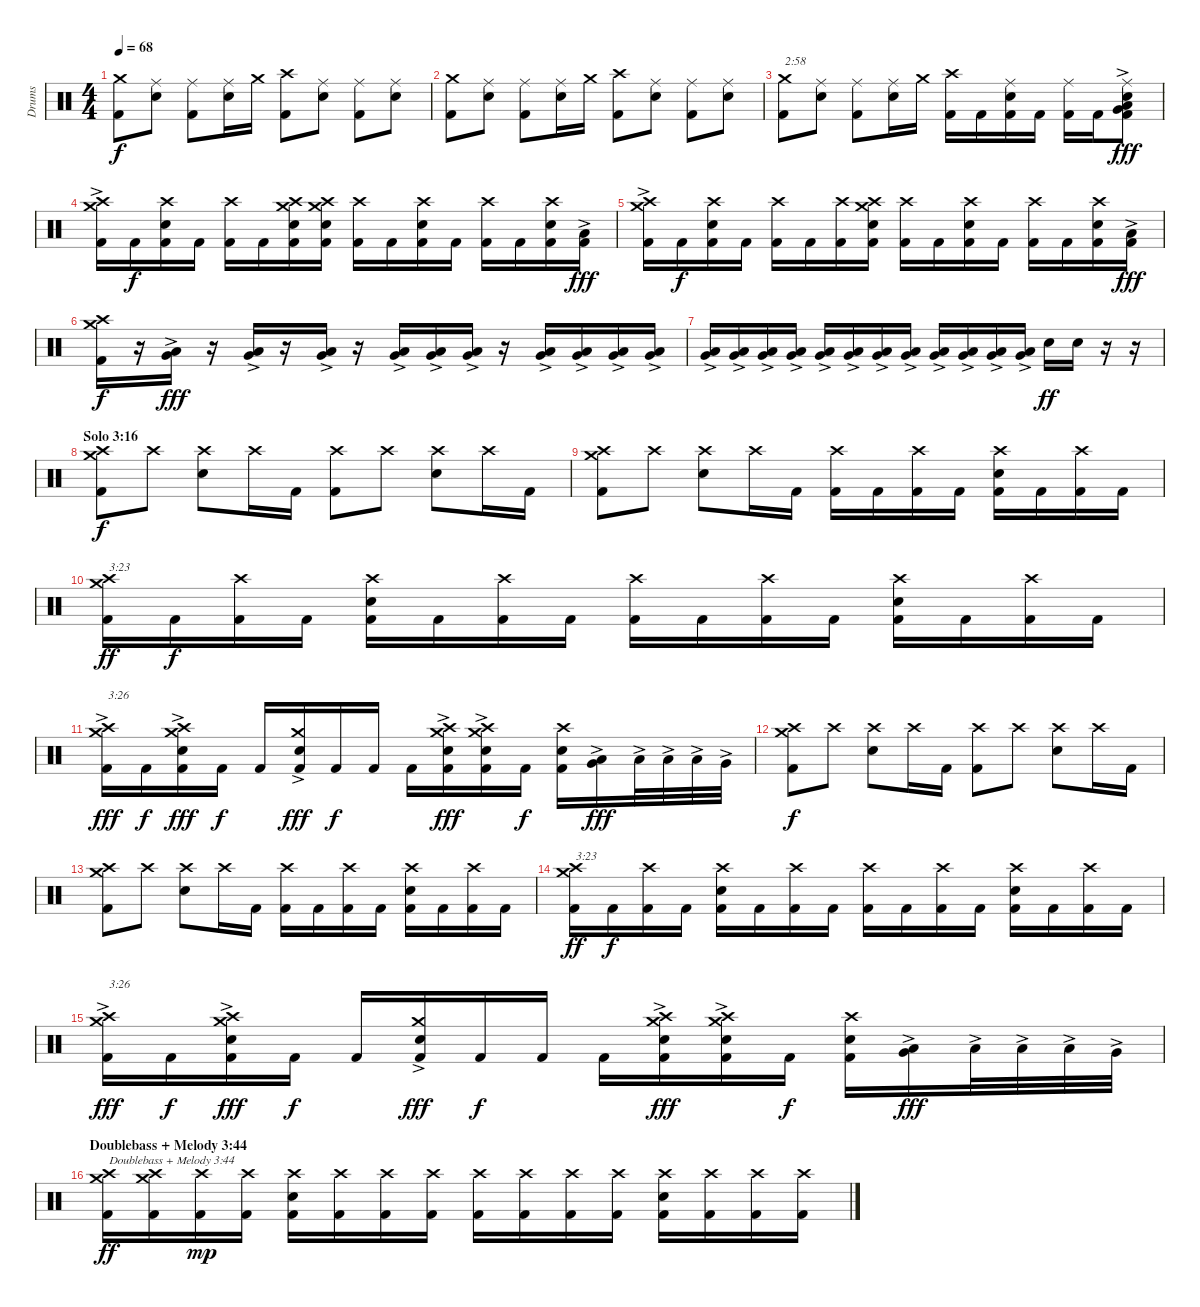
\track ("Drums" "Drums") {instrument percussion}
\staff {score}
\articulation defaults
\ts (4 4)
\tempo 68
\clef neutral
\ks c
("Kick (hit) 2" "Crash medium (hit)").8{dy f} ("Electric Snare (hit)" "Ride (middle)").8 ("Kick (hit) 2" "Ride (middle)").8 ("Electric Snare (hit)" "Ride (middle)").16 "Crash medium (hit)".16 ("Kick (hit) 2" "Crash high (hit)").8 ("Electric Snare (hit)" "Ride (middle)").8 ("Kick (hit) 2" "Ride (middle)").8 ("Electric Snare (hit)" "Ride (middle)").8 |
("Kick (hit) 2" "Crash medium (hit)").8 ("Electric Snare (hit)" "Ride (middle)").8 ("Kick (hit) 2" "Ride (middle)").8 ("Electric Snare (hit)" "Ride (middle)").16 "Crash medium (hit)".16 ("Kick (hit) 2" "Crash high (hit)").8 ("Electric Snare (hit)" "Ride (middle)").8 ("Kick (hit) 2" "Ride (middle)").8 ("Electric Snare (hit)" "Ride (middle)").8 |
("Kick (hit) 2" "Crash medium (hit)").8{txt "2:58"} ("Electric Snare (hit)" "Ride (middle)").8 ("Kick (hit) 2" "Ride (middle)").8 ("Electric Snare (hit)" "Ride (middle)").16 "Crash medium (hit)".16 ("Kick (hit) 2" "Crash high (hit)").16 "Kick (hit) 2".16 ("Kick (hit) 2" "Electric Snare (hit)" "Ride (middle)").16 "Kick (hit) 2".16 ("Kick (hit) 2" "Ride (middle)").16 "Kick (hit) 2".16 ("Kick (hit) 2"{ac} "Very Low Tom (hit)"{ac} "Low Tom (hit)"{ac} "Electric Snare (hit)" "Ride (middle)").8{dy fff} |
("Kick (hit) 2" "Crash high (hit)" "Crash medium (hit)"{ac}).16 "Kick (hit) 2".16{dy f} ("Kick (hit) 2" "Electric Snare (hit)" "Crash high (hit)").16 "Kick (hit) 2".16 ("Kick (hit) 2" "Crash high (hit)").16 "Kick (hit) 2".16 ("Kick (hit) 2" "Electric Snare (hit)" "Crash high (hit)" "Crash medium (hit)").16 ("Kick (hit) 2" "Electric Snare (hit)" "Crash high (hit)" "Crash medium (hit)").16 ("Kick (hit) 2" "Crash high (hit)").16 "Kick (hit) 2".16 ("Kick (hit) 2" "Electric Snare (hit)" "Crash high (hit)").16 "Kick (hit) 2".16 ("Kick (hit) 2" "Crash high (hit)").16 "Kick (hit) 2".16 ("Kick (hit) 2" "Electric Snare (hit)" "Crash high (hit)").16 ("Kick (hit) 2" "Low Tom (hit)"{ac}).16{dy fff} |
("Kick (hit) 2" "Crash high (hit)" "Crash medium (hit)"{ac}).16 "Kick (hit) 2".16{dy f} ("Kick (hit) 2" "Electric Snare (hit)" "Crash high (hit)").16 "Kick (hit) 2".16 ("Kick (hit) 2" "Crash high (hit)").16 "Kick (hit) 2".16 ("Kick (hit) 2" "Crash high (hit)").16 ("Kick (hit) 2" "Electric Snare (hit)" "Crash high (hit)" "Crash medium (hit)").16 ("Kick (hit) 2" "Crash high (hit)").16 "Kick (hit) 2".16 ("Kick (hit) 2" "Electric Snare (hit)" "Crash high (hit)").16 "Kick (hit) 2".16 ("Kick (hit) 2" "Crash high (hit)").16 "Kick (hit) 2".16 ("Kick (hit) 2" "Electric Snare (hit)" "Crash high (hit)").16 ("Kick (hit) 2" "Low Tom (hit)"{ac}).16{dy fff} |
("Kick (hit) 2" "Crash high (hit)" "Crash medium (hit)").16{dy f} r.16 ("Low Tom (hit)"{ac} "Very Low Tom (hit)"{ac}).16{dy fff} r.16 ("Low Tom (hit)"{ac} "Very Low Tom (hit)"{ac}).16 r.16 ("Low Tom (hit)"{ac} "Very Low Tom (hit)"{ac}).16 r.16 ("Low Tom (hit)"{ac} "Very Low Tom (hit)"{ac}).16 ("Low Tom (hit)"{ac} "Very Low Tom (hit)"{ac}).16 ("Low Tom (hit)"{ac} "Very Low Tom (hit)"{ac}).16 r.16 ("Low Tom (hit)"{ac} "Very Low Tom (hit)"{ac}).16 ("Low Tom (hit)"{ac} "Very Low Tom (hit)"{ac}).16 ("Low Tom (hit)"{ac} "Very Low Tom (hit)"{ac}).16 ("Low Tom (hit)"{ac} "Very Low Tom (hit)"{ac}).16 |
("Low Tom (hit)"{ac} "Very Low Tom (hit)"{ac}).16 ("Low Tom (hit)"{ac} "Very Low Tom (hit)"{ac}).16 ("Low Tom (hit)"{ac} "Very Low Tom (hit)"{ac}).16 ("Low Tom (hit)"{ac} "Very Low Tom (hit)"{ac}).16 ("Low Tom (hit)"{ac} "Very Low Tom (hit)"{ac}).16 ("Low Tom (hit)"{ac} "Very Low Tom (hit)"{ac}).16 ("Low Tom (hit)"{ac} "Very Low Tom (hit)"{ac}).16 ("Low Tom (hit)"{ac} "Very Low Tom (hit)"{ac}).16 ("Low Tom (hit)"{ac} "Very Low Tom (hit)"{ac}).16 ("Low Tom (hit)"{ac} "Very Low Tom (hit)"{ac}).16 ("Low Tom (hit)"{ac} "Very Low Tom (hit)"{ac}).16 ("Low Tom (hit)"{ac} "Very Low Tom (hit)"{ac}).16 "Electric Snare (hit)".16{dy ff} "Electric Snare (hit)".16 r.16 r.16 |
\section ("" "Solo 3:16")
("Kick (hit) 2" "Crash high (hit)" "Crash medium (hit)").8{dy f} "Crash high (hit)".8 ("Electric Snare (hit)" "Crash high (hit)").8 "Crash high (hit)".16 "Kick (hit) 2".16 ("Kick (hit) 2" "Crash high (hit)").8 "Crash high (hit)".8 ("Electric Snare (hit)" "Crash high (hit)").8 "Crash high (hit)".16 "Kick (hit) 2".16 |
("Kick (hit) 2" "Crash high (hit)" "Crash medium (hit)").8 "Crash high (hit)".8 ("Electric Snare (hit)" "Crash high (hit)").8 "Crash high (hit)".16 "Kick (hit) 2".16 ("Kick (hit) 2" "Crash high (hit)").16 "Kick (hit) 2".16 ("Kick (hit) 2" "Crash high (hit)").16 "Kick (hit) 2".16 ("Kick (hit) 2" "Electric Snare (hit)" "Crash high (hit)").16 "Kick (hit) 2".16 ("Kick (hit) 2" "Crash high (hit)").16 "Kick (hit) 2".16 |
("Kick (hit) 2" "Crash high (hit)" "Crash medium (hit)").16{txt "3:23" dy ff} "Kick (hit) 2".16{dy f} ("Kick (hit) 2" "Crash high (hit)").16 "Kick (hit) 2".16 ("Kick (hit) 2" "Electric Snare (hit)" "Crash high (hit)").16 "Kick (hit) 2".16 ("Kick (hit) 2" "Crash high (hit)").16 "Kick (hit) 2".16 ("Kick (hit) 2" "Crash high (hit)").16 "Kick (hit) 2".16 ("Kick (hit) 2" "Crash high (hit)").16 "Kick (hit) 2".16 ("Kick (hit) 2" "Electric Snare (hit)" "Crash high (hit)").16 "Kick (hit) 2".16 ("Kick (hit) 2" "Crash high (hit)").16 "Kick (hit) 2".16 |
("Kick (hit) 2" "Crash high (hit)" "Crash medium (hit)"{ac}).16{txt "3:26" dy fff} "Kick (hit) 2".16{dy f} ("Kick (hit) 2" "Electric Snare (hit)" "Crash high (hit)" "Crash medium (hit)"{ac}).16{dy fff} "Kick (hit) 2".16{dy f} "Kick (hit) 2".16 ("Kick (hit) 2" "Electric Snare (hit)" "Crash medium (hit)"{ac}).16{dy fff} "Kick (hit) 2".16{dy f} "Kick (hit) 2".16 "Kick (hit) 2".16 ("Kick (hit) 2" "Electric Snare (hit)" "Crash high (hit)" "Crash medium (hit)"{ac}).16{dy fff} ("Kick (hit) 2" "Electric Snare (hit)" "Crash high (hit)" "Crash medium (hit)"{ac}).16 "Kick (hit) 2".16{dy f} ("Kick (hit) 2" "Electric Snare (hit)" "Crash high (hit)").16 ("Low Tom (hit)"{ac} "Very Low Tom (hit)"{ac}).16{dy fff} "Low Tom (hit)"{ac}.32 "Low Tom (hit)"{ac}.32 "Low Tom (hit)"{ac}.32 "Very Low Tom (hit)"{ac}.32 |
("Kick (hit) 2" "Crash high (hit)" "Crash medium (hit)").8{dy f} "Crash high (hit)".8 ("Electric Snare (hit)" "Crash high (hit)").8 "Crash high (hit)".16 "Kick (hit) 2".16 ("Kick (hit) 2" "Crash high (hit)").8 "Crash high (hit)".8 ("Electric Snare (hit)" "Crash high (hit)").8 "Crash high (hit)".16 "Kick (hit) 2".16 |
("Kick (hit) 2" "Crash high (hit)" "Crash medium (hit)").8 "Crash high (hit)".8 ("Electric Snare (hit)" "Crash high (hit)").8 "Crash high (hit)".16 "Kick (hit) 2".16 ("Kick (hit) 2" "Crash high (hit)").16 "Kick (hit) 2".16 ("Kick (hit) 2" "Crash high (hit)").16 "Kick (hit) 2".16 ("Kick (hit) 2" "Electric Snare (hit)" "Crash high (hit)").16 "Kick (hit) 2".16 ("Kick (hit) 2" "Crash high (hit)").16 "Kick (hit) 2".16 |
("Kick (hit) 2" "Crash high (hit)" "Crash medium (hit)").16{txt "3:23" dy ff} "Kick (hit) 2".16{dy f} ("Kick (hit) 2" "Crash high (hit)").16 "Kick (hit) 2".16 ("Kick (hit) 2" "Electric Snare (hit)" "Crash high (hit)").16 "Kick (hit) 2".16 ("Kick (hit) 2" "Crash high (hit)").16 "Kick (hit) 2".16 ("Kick (hit) 2" "Crash high (hit)").16 "Kick (hit) 2".16 ("Kick (hit) 2" "Crash high (hit)").16 "Kick (hit) 2".16 ("Kick (hit) 2" "Electric Snare (hit)" "Crash high (hit)").16 "Kick (hit) 2".16 ("Kick (hit) 2" "Crash high (hit)").16 "Kick (hit) 2".16 |
("Kick (hit) 2" "Crash high (hit)" "Crash medium (hit)"{ac}).16{txt "3:26" dy fff} "Kick (hit) 2".16{dy f} ("Kick (hit) 2" "Electric Snare (hit)" "Crash high (hit)" "Crash medium (hit)"{ac}).16{dy fff} "Kick (hit) 2".16{dy f} "Kick (hit) 2".16 ("Kick (hit) 2" "Electric Snare (hit)" "Crash medium (hit)"{ac}).16{dy fff} "Kick (hit) 2".16{dy f} "Kick (hit) 2".16 "Kick (hit) 2".16 ("Kick (hit) 2" "Electric Snare (hit)" "Crash high (hit)" "Crash medium (hit)"{ac}).16{dy fff} ("Kick (hit) 2" "Electric Snare (hit)" "Crash high (hit)" "Crash medium (hit)"{ac}).16 "Kick (hit) 2".16{dy f} ("Kick (hit) 2" "Electric Snare (hit)" "Crash high (hit)").16 ("Low Tom (hit)"{ac} "Very Low Tom (hit)"{ac}).16{dy fff} "Low Tom (hit)"{ac}.32 "Low Tom (hit)"{ac}.32 "Low Tom (hit)"{ac}.32 "Very Low Tom (hit)"{ac}.32 |
\section ("" "Doublebass + Melody 3:44")
("Kick (hit) 2" "Crash high (hit)" "Crash medium (hit)").16{txt "Doublebass + Melody 3:44" dy ff} ("Kick (hit) 2" "Crash high (hit)" "Crash medium (hit)").16 ("Kick (hit) 2" "Crash high (hit)").16{dy mp} ("Kick (hit) 2" "Crash high (hit)").16 ("Kick (hit) 2" "Electric Snare (hit)" "Crash high (hit)").16 ("Kick (hit) 2" "Crash high (hit)").16 ("Kick (hit) 2" "Crash high (hit)").16 ("Kick (hit) 2" "Crash high (hit)").16 ("Kick (hit) 2" "Crash high (hit)").16 ("Kick (hit) 2" "Crash high (hit)").16 ("Kick (hit) 2" "Crash high (hit)").16 ("Kick (hit) 2" "Crash high (hit)").16 ("Kick (hit) 2" "Electric Snare (hit)" "Crash high (hit)").16 ("Kick (hit) 2" "Crash high (hit)").16 ("Kick (hit) 2" "Crash high (hit)").16 ("Kick (hit) 2" "Crash high (hit)").16
